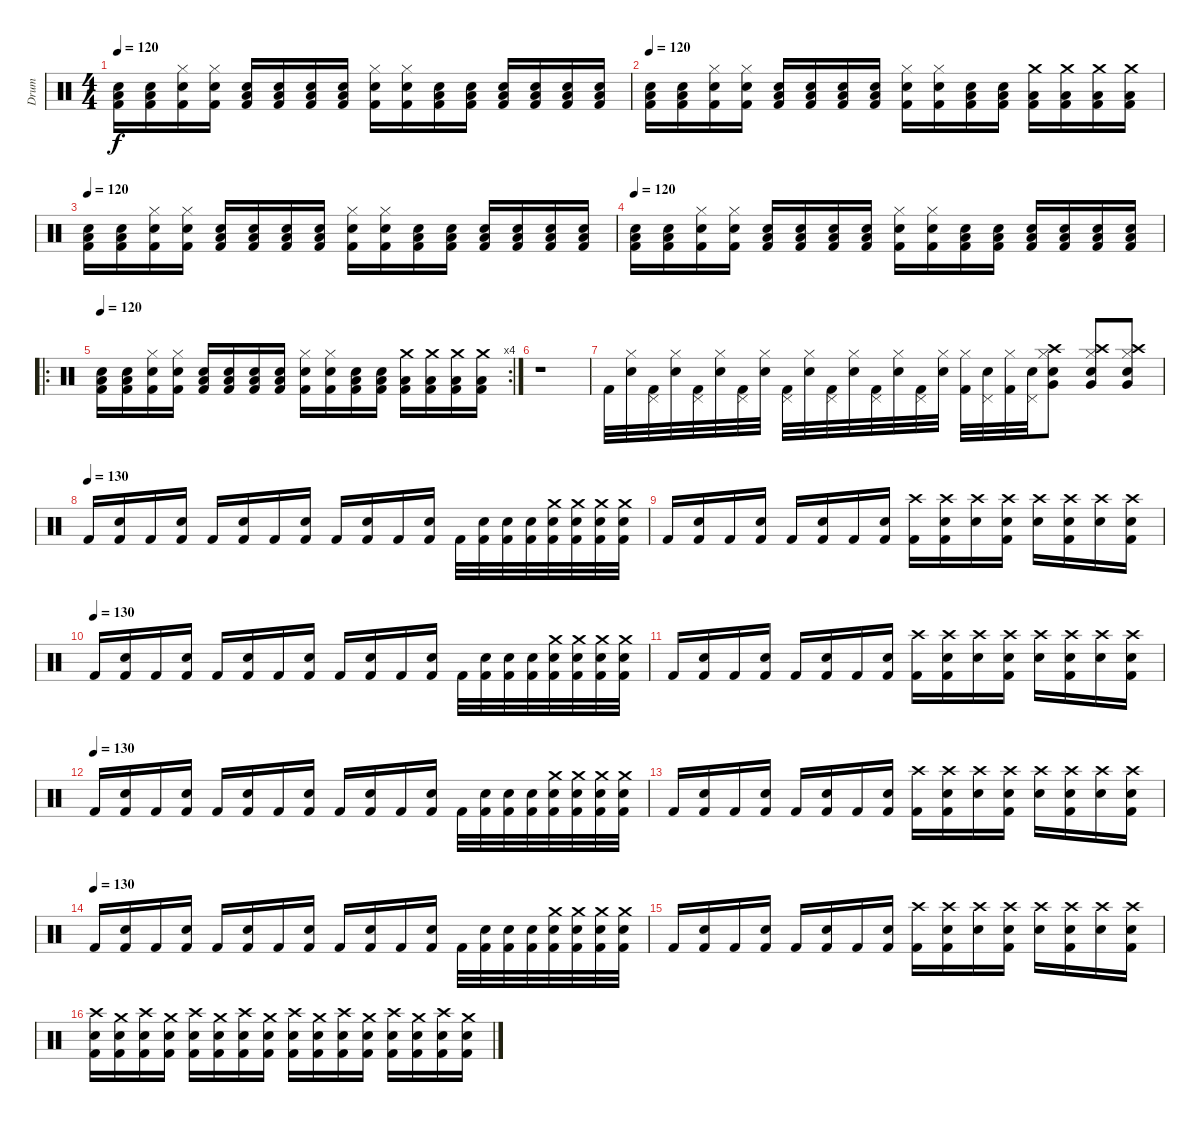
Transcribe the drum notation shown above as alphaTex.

\track ("Drum" "Drum") {instrument percussion}
\staff {score}
\articulation defaults
\ts (4 4)
\tempo 120
\clef neutral
\ks c
("Electric Snare (hit)" "Low Tom (hit)" "Kick (hit) 2").16{dy f} ("Snare (hit) 2" "Low Tom (hit)" "Kick (hit) 2").16 ("Electric Snare (hit)" "Hi-Hat (closed)" "Kick (hit) 2").16 ("Snare (hit) 2" "Hi-Hat (closed)" "Kick (hit) 2").16 ("Electric Snare (hit)" "Low Floor Tom (hit)" "Kick (hit) 2").16 ("Snare (hit) 2" "Low Floor Tom (hit)" "Kick (hit) 2").16 ("Electric Snare (hit)" "Low Tom (hit)" "Kick (hit) 2").16 ("Snare (hit) 2" "Low Tom (hit)" "Kick (hit) 2").16 ("Electric Snare (hit)" "Hi-Hat (closed)" "Kick (hit) 2").16 ("Snare (hit) 2" "Hi-Hat (closed)" "Kick (hit) 2").16 ("Electric Snare (hit)" "Low Floor Tom (hit)" "Kick (hit) 2").16 ("Snare (hit) 2" "Low Floor Tom (hit)" "Kick (hit) 2").16 ("Electric Snare (hit)" "Low Tom (hit)" "Kick (hit) 2").16 ("Snare (hit) 2" "Low Tom (hit)" "Kick (hit) 2").16 ("Electric Snare (hit)" "Low Tom (hit)" "Kick (hit) 2").16 ("Snare (hit) 2" "Low Tom (hit)" "Kick (hit) 2").16 |
\tempo 120
("Electric Snare (hit)" "Low Tom (hit)" "Kick (hit) 2").16 ("Snare (hit) 2" "Low Tom (hit)" "Kick (hit) 2").16 ("Electric Snare (hit)" "Hi-Hat (closed)" "Kick (hit) 2").16 ("Snare (hit) 2" "Hi-Hat (closed)" "Kick (hit) 2").16 ("Electric Snare (hit)" "Low Floor Tom (hit)" "Kick (hit) 2").16 ("Snare (hit) 2" "Low Floor Tom (hit)" "Kick (hit) 2").16 ("Electric Snare (hit)" "Low Tom (hit)" "Kick (hit) 2").16 ("Snare (hit) 2" "Low Tom (hit)" "Kick (hit) 2").16 ("Electric Snare (hit)" "Hi-Hat (closed)" "Kick (hit) 2").16 ("Snare (hit) 2" "Hi-Hat (closed)" "Kick (hit) 2").16 ("Electric Snare (hit)" "Low Floor Tom (hit)" "Kick (hit) 2").16 ("Snare (hit) 2" "Low Floor Tom (hit)" "Kick (hit) 2").16 ("Crash medium (hit)" "Low Tom (hit)" "Kick (hit) 2").16 ("Crash medium (hit)" "Low Tom (hit)" "Kick (hit) 2").16 ("Crash medium (hit)" "Low Tom (hit)" "Kick (hit) 2").16 ("Crash medium (hit)" "Low Tom (hit)" "Kick (hit) 2").16 |
\tempo 120
("Electric Snare (hit)" "Low Tom (hit)" "Kick (hit) 2").16 ("Snare (hit) 2" "Low Tom (hit)" "Kick (hit) 2").16 ("Electric Snare (hit)" "Hi-Hat (closed)" "Kick (hit) 2").16 ("Snare (hit) 2" "Hi-Hat (closed)" "Kick (hit) 2").16 ("Electric Snare (hit)" "Low Floor Tom (hit)" "Kick (hit) 2").16 ("Snare (hit) 2" "Low Floor Tom (hit)" "Kick (hit) 2").16 ("Electric Snare (hit)" "Low Tom (hit)" "Kick (hit) 2").16 ("Snare (hit) 2" "Low Tom (hit)" "Kick (hit) 2").16 ("Electric Snare (hit)" "Hi-Hat (closed)" "Kick (hit) 2").16 ("Snare (hit) 2" "Hi-Hat (closed)" "Kick (hit) 2").16 ("Electric Snare (hit)" "Low Floor Tom (hit)" "Kick (hit) 2").16 ("Snare (hit) 2" "Low Floor Tom (hit)" "Kick (hit) 2").16 ("Electric Snare (hit)" "Low Tom (hit)" "Kick (hit) 2").16 ("Snare (hit) 2" "Low Tom (hit)" "Kick (hit) 2").16 ("Electric Snare (hit)" "Low Tom (hit)" "Kick (hit) 2").16 ("Snare (hit) 2" "Low Tom (hit)" "Kick (hit) 2").16 |
\tempo 120
("Electric Snare (hit)" "Low Tom (hit)" "Kick (hit) 2").16 ("Snare (hit) 2" "Low Tom (hit)" "Kick (hit) 2").16 ("Electric Snare (hit)" "Hi-Hat (closed)" "Kick (hit) 2").16 ("Snare (hit) 2" "Hi-Hat (closed)" "Kick (hit) 2").16 ("Electric Snare (hit)" "Low Floor Tom (hit)" "Kick (hit) 2").16 ("Snare (hit) 2" "Low Floor Tom (hit)" "Kick (hit) 2").16 ("Electric Snare (hit)" "Low Tom (hit)" "Kick (hit) 2").16 ("Snare (hit) 2" "Low Tom (hit)" "Kick (hit) 2").16 ("Electric Snare (hit)" "Hi-Hat (closed)" "Kick (hit) 2").16 ("Snare (hit) 2" "Hi-Hat (closed)" "Kick (hit) 2").16 ("Electric Snare (hit)" "Low Floor Tom (hit)" "Kick (hit) 2").16 ("Snare (hit) 2" "Low Floor Tom (hit)" "Kick (hit) 2").16 ("Electric Snare (hit)" "Low Tom (hit)" "Kick (hit) 2").16 ("Snare (hit) 2" "Low Tom (hit)" "Kick (hit) 2").16 ("Electric Snare (hit)" "Low Tom (hit)" "Kick (hit) 2").16 ("Snare (hit) 2" "Low Tom (hit)" "Kick (hit) 2").16 |
\ro
\rc 4
\tempo 120
("Electric Snare (hit)" "Low Tom (hit)" "Kick (hit) 2").16 ("Snare (hit) 2" "Low Tom (hit)" "Kick (hit) 2").16 ("Electric Snare (hit)" "Hi-Hat (closed)" "Kick (hit) 2").16 ("Snare (hit) 2" "Hi-Hat (closed)" "Kick (hit) 2").16 ("Electric Snare (hit)" "Low Floor Tom (hit)" "Kick (hit) 2").16 ("Snare (hit) 2" "Low Floor Tom (hit)" "Kick (hit) 2").16 ("Electric Snare (hit)" "Low Tom (hit)" "Kick (hit) 2").16 ("Snare (hit) 2" "Low Tom (hit)" "Kick (hit) 2").16 ("Electric Snare (hit)" "Hi-Hat (closed)" "Kick (hit) 2").16 ("Snare (hit) 2" "Hi-Hat (closed)" "Kick (hit) 2").16 ("Electric Snare (hit)" "Low Floor Tom (hit)" "Kick (hit) 2").16 ("Snare (hit) 2" "Low Floor Tom (hit)" "Kick (hit) 2").16 ("Crash medium (hit)" "Low Tom (hit)" "Kick (hit) 2").16 ("Crash medium (hit)" "Low Tom (hit)" "Kick (hit) 2").16 ("Crash medium (hit)" "Low Tom (hit)" "Kick (hit) 2").16 ("Crash medium (hit)" "Low Tom (hit)" "Kick (hit) 2").16 |
r.1 |
"Kick (hit) 2".32 ("Hi-Hat (closed)" "Electric Snare (hit)").32 ("Pedal Hi-Hat (hit)" "Kick (hit) 2").32 ("Hi-Hat (closed)" "Electric Snare (hit)").32 ("Pedal Hi-Hat (hit)" "Kick (hit) 2").32 ("Hi-Hat (closed)" "Electric Snare (hit)").32 ("Pedal Hi-Hat (hit)" "Kick (hit) 2").32 ("Hi-Hat (closed)" "Electric Snare (hit)").32 ("Pedal Hi-Hat (hit)" "Kick (hit) 2").32 ("Hi-Hat (closed)" "Electric Snare (hit)").32 ("Pedal Hi-Hat (hit)" "Kick (hit) 2").32 ("Hi-Hat (closed)" "Electric Snare (hit)").32 ("Pedal Hi-Hat (hit)" "Kick (hit) 2").32 ("Hi-Hat (closed)" "Electric Snare (hit)").32 ("Pedal Hi-Hat (hit)" "Kick (hit) 2").32 ("Hi-Hat (closed)" "Electric Snare (hit)").32 ("Hi-Hat (closed)" "Kick (hit) 2").32 ("Pedal Hi-Hat (hit)" "Electric Snare (hit)").32 ("Hi-Hat (closed)" "Kick (hit) 2").32 ("Pedal Hi-Hat (hit)" "Electric Snare (hit)").32 ("Crash high (hit)" "Hi-Hat (closed)" "Very Low Tom (hit)" "Electric Snare (hit)").8 ("Crash high (hit)" "Hi-Hat (closed)" "Very Low Tom (hit)" "Electric Snare (hit)").8 ("Crash high (hit)" "Hi-Hat (closed)" "Very Low Tom (hit)" "Electric Snare (hit)").8 |
\tempo (130)
"Kick (hit) 2".16 ("Snare (hit) 2" "Kick (hit) 2").16 "Kick (hit) 2".16 ("Snare (hit) 2" "Kick (hit) 2").16 "Kick (hit) 2".16 ("Snare (hit) 2" "Kick (hit) 2").16 "Kick (hit) 2".16 ("Snare (hit) 2" "Kick (hit) 2").16 "Kick (hit) 2".16 ("Snare (hit) 2" "Kick (hit) 2").16 "Kick (hit) 2".16 ("Snare (hit) 2" "Kick (hit) 2").16 "Kick (hit) 2".32 ("Electric Snare (hit)" "Kick (hit) 2").32 ("Snare (hit) 2" "Kick (hit) 2").32 ("Electric Snare (hit)" "Kick (hit) 2").32 ("Crash medium (hit)" "Snare (hit) 2" "Kick (hit) 2").32 ("Crash medium (hit)" "Electric Snare (hit)" "Kick (hit) 2").32 ("Crash medium (hit)" "Snare (hit) 2" "Kick (hit) 2").32 ("Crash medium (hit)" "Electric Snare (hit)" "Kick (hit) 2").32 |
"Kick (hit) 2".16 ("Snare (hit) 2" "Kick (hit) 2").16 "Kick (hit) 2".16 ("Snare (hit) 2" "Kick (hit) 2").16 "Kick (hit) 2".16 ("Snare (hit) 2" "Kick (hit) 2").16 "Kick (hit) 2".16 ("Snare (hit) 2" "Kick (hit) 2").16 ("Crash high (hit)" "Kick (hit) 2").16 ("Crash high (hit)" "Snare (hit) 2" "Kick (hit) 2").16 ("Crash high (hit)" "Snare (hit) 2").16 ("Crash high (hit)" "Snare (hit) 2" "Kick (hit) 2").16 ("Crash high (hit)" "Snare (hit) 2").16 ("Crash high (hit)" "Snare (hit) 2" "Kick (hit) 2").16 ("Crash high (hit)" "Snare (hit) 2").16 ("Crash high (hit)" "Snare (hit) 2" "Kick (hit) 2").16 |
\tempo (130)
"Kick (hit) 2".16 ("Snare (hit) 2" "Kick (hit) 2").16 "Kick (hit) 2".16 ("Snare (hit) 2" "Kick (hit) 2").16 "Kick (hit) 2".16 ("Snare (hit) 2" "Kick (hit) 2").16 "Kick (hit) 2".16 ("Snare (hit) 2" "Kick (hit) 2").16 "Kick (hit) 2".16 ("Snare (hit) 2" "Kick (hit) 2").16 "Kick (hit) 2".16 ("Snare (hit) 2" "Kick (hit) 2").16 "Kick (hit) 2".32 ("Electric Snare (hit)" "Kick (hit) 2").32 ("Snare (hit) 2" "Kick (hit) 2").32 ("Electric Snare (hit)" "Kick (hit) 2").32 ("Crash medium (hit)" "Snare (hit) 2" "Kick (hit) 2").32 ("Crash medium (hit)" "Electric Snare (hit)" "Kick (hit) 2").32 ("Crash medium (hit)" "Snare (hit) 2" "Kick (hit) 2").32 ("Crash medium (hit)" "Electric Snare (hit)" "Kick (hit) 2").32 |
"Kick (hit) 2".16 ("Snare (hit) 2" "Kick (hit) 2").16 "Kick (hit) 2".16 ("Snare (hit) 2" "Kick (hit) 2").16 "Kick (hit) 2".16 ("Snare (hit) 2" "Kick (hit) 2").16 "Kick (hit) 2".16 ("Snare (hit) 2" "Kick (hit) 2").16 ("Crash high (hit)" "Kick (hit) 2").16 ("Crash high (hit)" "Snare (hit) 2" "Kick (hit) 2").16 ("Crash high (hit)" "Snare (hit) 2").16 ("Crash high (hit)" "Snare (hit) 2" "Kick (hit) 2").16 ("Crash high (hit)" "Snare (hit) 2").16 ("Crash high (hit)" "Snare (hit) 2" "Kick (hit) 2").16 ("Crash high (hit)" "Snare (hit) 2").16 ("Crash high (hit)" "Snare (hit) 2" "Kick (hit) 2").16 |
\tempo (130)
"Kick (hit) 2".16 ("Snare (hit) 2" "Kick (hit) 2").16 "Kick (hit) 2".16 ("Snare (hit) 2" "Kick (hit) 2").16 "Kick (hit) 2".16 ("Snare (hit) 2" "Kick (hit) 2").16 "Kick (hit) 2".16 ("Snare (hit) 2" "Kick (hit) 2").16 "Kick (hit) 2".16 ("Snare (hit) 2" "Kick (hit) 2").16 "Kick (hit) 2".16 ("Snare (hit) 2" "Kick (hit) 2").16 "Kick (hit) 2".32 ("Electric Snare (hit)" "Kick (hit) 2").32 ("Snare (hit) 2" "Kick (hit) 2").32 ("Electric Snare (hit)" "Kick (hit) 2").32 ("Crash medium (hit)" "Snare (hit) 2" "Kick (hit) 2").32 ("Crash medium (hit)" "Electric Snare (hit)" "Kick (hit) 2").32 ("Crash medium (hit)" "Snare (hit) 2" "Kick (hit) 2").32 ("Crash medium (hit)" "Electric Snare (hit)" "Kick (hit) 2").32 |
"Kick (hit) 2".16 ("Snare (hit) 2" "Kick (hit) 2").16 "Kick (hit) 2".16 ("Snare (hit) 2" "Kick (hit) 2").16 "Kick (hit) 2".16 ("Snare (hit) 2" "Kick (hit) 2").16 "Kick (hit) 2".16 ("Snare (hit) 2" "Kick (hit) 2").16 ("Crash high (hit)" "Kick (hit) 2").16 ("Crash high (hit)" "Snare (hit) 2" "Kick (hit) 2").16 ("Crash high (hit)" "Snare (hit) 2").16 ("Crash high (hit)" "Snare (hit) 2" "Kick (hit) 2").16 ("Crash high (hit)" "Snare (hit) 2").16 ("Crash high (hit)" "Snare (hit) 2" "Kick (hit) 2").16 ("Crash high (hit)" "Snare (hit) 2").16 ("Crash high (hit)" "Snare (hit) 2" "Kick (hit) 2").16 |
\tempo (130)
"Kick (hit) 2".16 ("Snare (hit) 2" "Kick (hit) 2").16 "Kick (hit) 2".16 ("Snare (hit) 2" "Kick (hit) 2").16 "Kick (hit) 2".16 ("Snare (hit) 2" "Kick (hit) 2").16 "Kick (hit) 2".16 ("Snare (hit) 2" "Kick (hit) 2").16 "Kick (hit) 2".16 ("Snare (hit) 2" "Kick (hit) 2").16 "Kick (hit) 2".16 ("Snare (hit) 2" "Kick (hit) 2").16 "Kick (hit) 2".32 ("Electric Snare (hit)" "Kick (hit) 2").32 ("Snare (hit) 2" "Kick (hit) 2").32 ("Electric Snare (hit)" "Kick (hit) 2").32 ("Crash medium (hit)" "Snare (hit) 2" "Kick (hit) 2").32 ("Crash medium (hit)" "Electric Snare (hit)" "Kick (hit) 2").32 ("Crash medium (hit)" "Snare (hit) 2" "Kick (hit) 2").32 ("Crash medium (hit)" "Electric Snare (hit)" "Kick (hit) 2").32 |
"Kick (hit) 2".16 ("Snare (hit) 2" "Kick (hit) 2").16 "Kick (hit) 2".16 ("Snare (hit) 2" "Kick (hit) 2").16 "Kick (hit) 2".16 ("Snare (hit) 2" "Kick (hit) 2").16 "Kick (hit) 2".16 ("Snare (hit) 2" "Kick (hit) 2").16 ("Crash high (hit)" "Kick (hit) 2").16 ("Crash high (hit)" "Snare (hit) 2" "Kick (hit) 2").16 ("Crash high (hit)" "Snare (hit) 2").16 ("Crash high (hit)" "Snare (hit) 2" "Kick (hit) 2").16 ("Crash high (hit)" "Snare (hit) 2").16 ("Crash high (hit)" "Snare (hit) 2" "Kick (hit) 2").16 ("Crash high (hit)" "Snare (hit) 2").16 ("Crash high (hit)" "Snare (hit) 2" "Kick (hit) 2").16 |
("Crash high (hit)" "Electric Snare (hit)" "Kick (hit) 2").16 ("Crash medium (hit)" "Electric Snare (hit)" "Kick (hit) 2").16 ("Crash high (hit)" "Electric Snare (hit)" "Kick (hit) 2").16 ("Crash medium (hit)" "Electric Snare (hit)" "Kick (hit) 2").16 ("Crash high (hit)" "Electric Snare (hit)" "Kick (hit) 2").16 ("Crash medium (hit)" "Electric Snare (hit)" "Kick (hit) 2").16 ("Crash high (hit)" "Electric Snare (hit)" "Kick (hit) 2").16 ("Crash medium (hit)" "Electric Snare (hit)" "Kick (hit) 2").16 ("Crash high (hit)" "Electric Snare (hit)" "Kick (hit) 2").16 ("Crash medium (hit)" "Electric Snare (hit)" "Kick (hit) 2").16 ("Crash high (hit)" "Electric Snare (hit)" "Kick (hit) 2").16 ("Crash medium (hit)" "Electric Snare (hit)" "Kick (hit) 2").16 ("Crash high (hit)" "Electric Snare (hit)" "Kick (hit) 2").16 ("Crash medium (hit)" "Electric Snare (hit)" "Kick (hit) 2").16 ("Crash high (hit)" "Electric Snare (hit)" "Kick (hit) 2").16 ("Crash medium (hit)" "Electric Snare (hit)" "Kick (hit) 2").16
